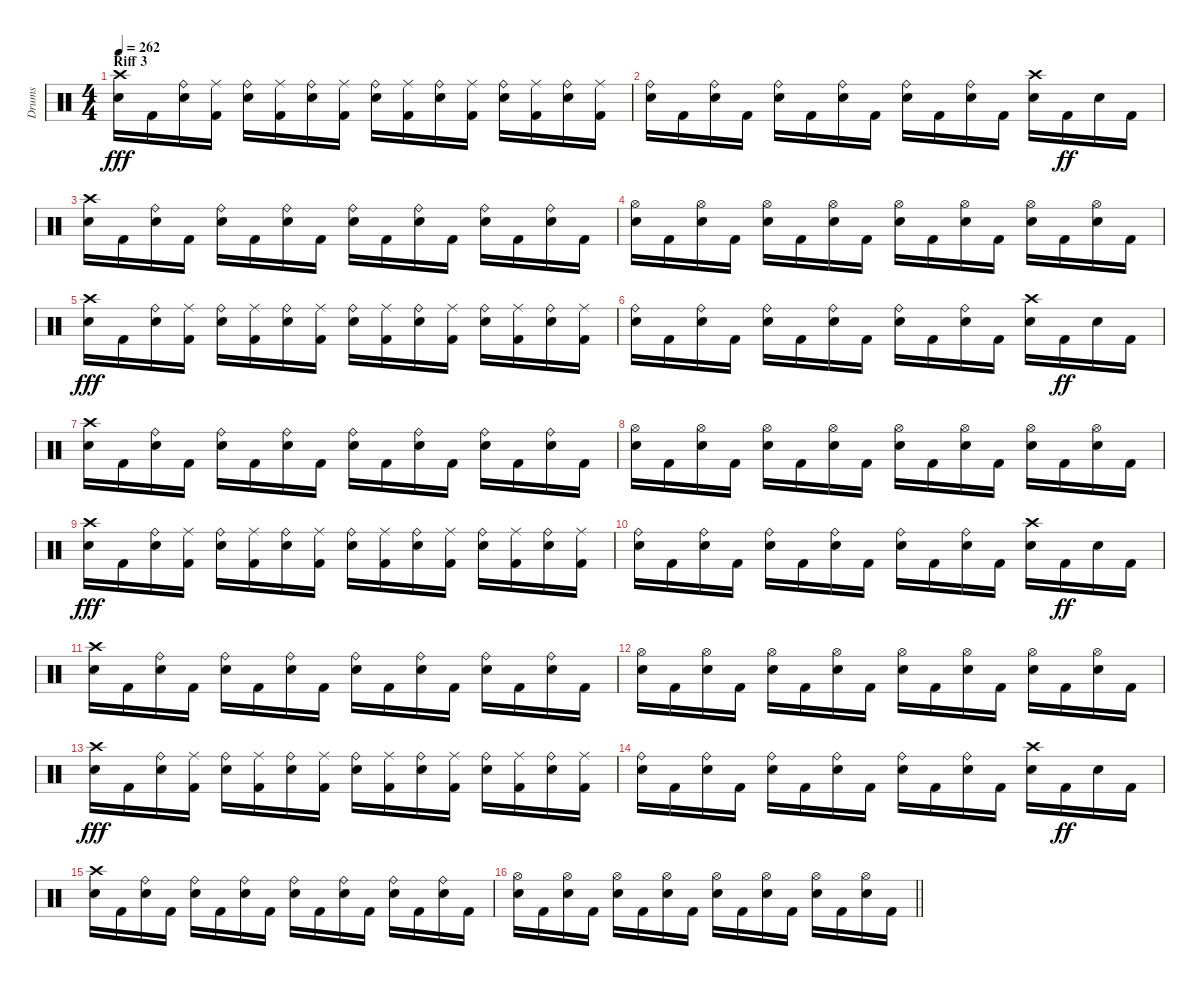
\track ("Drums" "Drums") {instrument percussion}
\staff {score}
\articulation defaults
\ts (4 4)
\section ("" "Riff 3")
\tempo 262
\clef neutral
\ks c
("Crash high (hit)" "Snare (hit) 2").16{dy fff} "Kick (hit) 2".16 ("Snare (hit) 2" "Ride (bell)").16 ("Kick (hit) 2" "Ride (middle)").16 ("Snare (hit) 2" "Ride (bell)").16 ("Kick (hit) 2" "Ride (middle)").16 ("Snare (hit) 2" "Ride (bell)").16 ("Kick (hit) 2" "Ride (middle)").16 ("Snare (hit) 2" "Ride (bell)").16 ("Kick (hit) 2" "Ride (middle)").16 ("Snare (hit) 2" "Ride (bell)").16 ("Kick (hit) 2" "Ride (middle)").16 ("Snare (hit) 2" "Ride (bell)").16 ("Kick (hit) 2" "Ride (middle)").16 ("Snare (hit) 2" "Ride (bell)").16 ("Kick (hit) 2" "Ride (middle)").16 |
("Snare (hit) 2" "Ride (bell)").16 "Kick (hit) 2".16 ("Snare (hit) 2" "Ride (bell)").16 "Kick (hit) 2".16 ("Snare (hit) 2" "Ride (bell)").16 "Kick (hit) 2".16 ("Snare (hit) 2" "Ride (bell)").16 "Kick (hit) 2".16 ("Snare (hit) 2" "Ride (bell)").16 "Kick (hit) 2".16 ("Snare (hit) 2" "Ride (bell)").16 "Kick (hit) 2".16 ("Crash high (hit)" "Snare (hit) 2").16 "Kick (hit) 2".16{dy ff} "Snare (hit) 2".16 "Kick (hit) 2".16 |
("Crash high (hit)" "Snare (hit) 2").16 "Kick (hit) 2".16 ("Snare (hit) 2" "Ride (bell)").16 "Kick (hit) 2".16 ("Snare (hit) 2" "Ride (bell)").16 "Kick (hit) 2".16 ("Snare (hit) 2" "Ride (bell)").16 "Kick (hit) 2".16 ("Snare (hit) 2" "Ride (bell)").16 "Kick (hit) 2".16 ("Snare (hit) 2" "Ride (bell)").16 "Kick (hit) 2".16 ("Snare (hit) 2" "Ride (bell)").16 "Kick (hit) 2".16 ("Snare (hit) 2" "Ride (bell)").16 "Kick (hit) 2".16 |
("Hi-Hat (open)" "Snare (hit) 2").16 "Kick (hit) 2".16 ("Hi-Hat (open)" "Snare (hit) 2").16 "Kick (hit) 2".16 ("Hi-Hat (open)" "Snare (hit) 2").16 "Kick (hit) 2".16 ("Hi-Hat (open)" "Snare (hit) 2").16 "Kick (hit) 2".16 ("Hi-Hat (open)" "Snare (hit) 2").16 "Kick (hit) 2".16 ("Hi-Hat (open)" "Snare (hit) 2").16 "Kick (hit) 2".16 ("Hi-Hat (open)" "Snare (hit) 2").16 "Kick (hit) 2".16 ("Hi-Hat (open)" "Snare (hit) 2").16 "Kick (hit) 2".16 |
("Crash high (hit)" "Snare (hit) 2").16{dy fff} "Kick (hit) 2".16 ("Snare (hit) 2" "Ride (bell)").16 ("Kick (hit) 2" "Ride (middle)").16 ("Snare (hit) 2" "Ride (bell)").16 ("Kick (hit) 2" "Ride (middle)").16 ("Snare (hit) 2" "Ride (bell)").16 ("Kick (hit) 2" "Ride (middle)").16 ("Snare (hit) 2" "Ride (bell)").16 ("Kick (hit) 2" "Ride (middle)").16 ("Snare (hit) 2" "Ride (bell)").16 ("Kick (hit) 2" "Ride (middle)").16 ("Snare (hit) 2" "Ride (bell)").16 ("Kick (hit) 2" "Ride (middle)").16 ("Snare (hit) 2" "Ride (bell)").16 ("Kick (hit) 2" "Ride (middle)").16 |
("Snare (hit) 2" "Ride (bell)").16 "Kick (hit) 2".16 ("Snare (hit) 2" "Ride (bell)").16 "Kick (hit) 2".16 ("Snare (hit) 2" "Ride (bell)").16 "Kick (hit) 2".16 ("Snare (hit) 2" "Ride (bell)").16 "Kick (hit) 2".16 ("Snare (hit) 2" "Ride (bell)").16 "Kick (hit) 2".16 ("Snare (hit) 2" "Ride (bell)").16 "Kick (hit) 2".16 ("Crash high (hit)" "Snare (hit) 2").16 "Kick (hit) 2".16{dy ff} "Snare (hit) 2".16 "Kick (hit) 2".16 |
("Crash high (hit)" "Snare (hit) 2").16 "Kick (hit) 2".16 ("Snare (hit) 2" "Ride (bell)").16 "Kick (hit) 2".16 ("Snare (hit) 2" "Ride (bell)").16 "Kick (hit) 2".16 ("Snare (hit) 2" "Ride (bell)").16 "Kick (hit) 2".16 ("Snare (hit) 2" "Ride (bell)").16 "Kick (hit) 2".16 ("Snare (hit) 2" "Ride (bell)").16 "Kick (hit) 2".16 ("Snare (hit) 2" "Ride (bell)").16 "Kick (hit) 2".16 ("Snare (hit) 2" "Ride (bell)").16 "Kick (hit) 2".16 |
("Hi-Hat (open)" "Snare (hit) 2").16 "Kick (hit) 2".16 ("Hi-Hat (open)" "Snare (hit) 2").16 "Kick (hit) 2".16 ("Hi-Hat (open)" "Snare (hit) 2").16 "Kick (hit) 2".16 ("Hi-Hat (open)" "Snare (hit) 2").16 "Kick (hit) 2".16 ("Hi-Hat (open)" "Snare (hit) 2").16 "Kick (hit) 2".16 ("Hi-Hat (open)" "Snare (hit) 2").16 "Kick (hit) 2".16 ("Hi-Hat (open)" "Snare (hit) 2").16 "Kick (hit) 2".16 ("Hi-Hat (open)" "Snare (hit) 2").16 "Kick (hit) 2".16 |
("Crash high (hit)" "Snare (hit) 2").16{dy fff} "Kick (hit) 2".16 ("Snare (hit) 2" "Ride (bell)").16 ("Kick (hit) 2" "Ride (middle)").16 ("Snare (hit) 2" "Ride (bell)").16 ("Kick (hit) 2" "Ride (middle)").16 ("Snare (hit) 2" "Ride (bell)").16 ("Kick (hit) 2" "Ride (middle)").16 ("Snare (hit) 2" "Ride (bell)").16 ("Kick (hit) 2" "Ride (middle)").16 ("Snare (hit) 2" "Ride (bell)").16 ("Kick (hit) 2" "Ride (middle)").16 ("Snare (hit) 2" "Ride (bell)").16 ("Kick (hit) 2" "Ride (middle)").16 ("Snare (hit) 2" "Ride (bell)").16 ("Kick (hit) 2" "Ride (middle)").16 |
("Snare (hit) 2" "Ride (bell)").16 "Kick (hit) 2".16 ("Snare (hit) 2" "Ride (bell)").16 "Kick (hit) 2".16 ("Snare (hit) 2" "Ride (bell)").16 "Kick (hit) 2".16 ("Snare (hit) 2" "Ride (bell)").16 "Kick (hit) 2".16 ("Snare (hit) 2" "Ride (bell)").16 "Kick (hit) 2".16 ("Snare (hit) 2" "Ride (bell)").16 "Kick (hit) 2".16 ("Crash high (hit)" "Snare (hit) 2").16 "Kick (hit) 2".16{dy ff} "Snare (hit) 2".16 "Kick (hit) 2".16 |
("Crash high (hit)" "Snare (hit) 2").16 "Kick (hit) 2".16 ("Snare (hit) 2" "Ride (bell)").16 "Kick (hit) 2".16 ("Snare (hit) 2" "Ride (bell)").16 "Kick (hit) 2".16 ("Snare (hit) 2" "Ride (bell)").16 "Kick (hit) 2".16 ("Snare (hit) 2" "Ride (bell)").16 "Kick (hit) 2".16 ("Snare (hit) 2" "Ride (bell)").16 "Kick (hit) 2".16 ("Snare (hit) 2" "Ride (bell)").16 "Kick (hit) 2".16 ("Snare (hit) 2" "Ride (bell)").16 "Kick (hit) 2".16 |
("Hi-Hat (open)" "Snare (hit) 2").16 "Kick (hit) 2".16 ("Hi-Hat (open)" "Snare (hit) 2").16 "Kick (hit) 2".16 ("Hi-Hat (open)" "Snare (hit) 2").16 "Kick (hit) 2".16 ("Hi-Hat (open)" "Snare (hit) 2").16 "Kick (hit) 2".16 ("Hi-Hat (open)" "Snare (hit) 2").16 "Kick (hit) 2".16 ("Hi-Hat (open)" "Snare (hit) 2").16 "Kick (hit) 2".16 ("Hi-Hat (open)" "Snare (hit) 2").16 "Kick (hit) 2".16 ("Hi-Hat (open)" "Snare (hit) 2").16 "Kick (hit) 2".16 |
("Crash high (hit)" "Snare (hit) 2").16{dy fff} "Kick (hit) 2".16 ("Snare (hit) 2" "Ride (bell)").16 ("Kick (hit) 2" "Ride (middle)").16 ("Snare (hit) 2" "Ride (bell)").16 ("Kick (hit) 2" "Ride (middle)").16 ("Snare (hit) 2" "Ride (bell)").16 ("Kick (hit) 2" "Ride (middle)").16 ("Snare (hit) 2" "Ride (bell)").16 ("Kick (hit) 2" "Ride (middle)").16 ("Snare (hit) 2" "Ride (bell)").16 ("Kick (hit) 2" "Ride (middle)").16 ("Snare (hit) 2" "Ride (bell)").16 ("Kick (hit) 2" "Ride (middle)").16 ("Snare (hit) 2" "Ride (bell)").16 ("Kick (hit) 2" "Ride (middle)").16 |
("Snare (hit) 2" "Ride (bell)").16 "Kick (hit) 2".16 ("Snare (hit) 2" "Ride (bell)").16 "Kick (hit) 2".16 ("Snare (hit) 2" "Ride (bell)").16 "Kick (hit) 2".16 ("Snare (hit) 2" "Ride (bell)").16 "Kick (hit) 2".16 ("Snare (hit) 2" "Ride (bell)").16 "Kick (hit) 2".16 ("Snare (hit) 2" "Ride (bell)").16 "Kick (hit) 2".16 ("Crash high (hit)" "Snare (hit) 2").16 "Kick (hit) 2".16{dy ff} "Snare (hit) 2".16 "Kick (hit) 2".16 |
("Crash high (hit)" "Snare (hit) 2").16 "Kick (hit) 2".16 ("Snare (hit) 2" "Ride (bell)").16 "Kick (hit) 2".16 ("Snare (hit) 2" "Ride (bell)").16 "Kick (hit) 2".16 ("Snare (hit) 2" "Ride (bell)").16 "Kick (hit) 2".16 ("Snare (hit) 2" "Ride (bell)").16 "Kick (hit) 2".16 ("Snare (hit) 2" "Ride (bell)").16 "Kick (hit) 2".16 ("Snare (hit) 2" "Ride (bell)").16 "Kick (hit) 2".16 ("Snare (hit) 2" "Ride (bell)").16 "Kick (hit) 2".16 |
\barLineRight lightlight
("Hi-Hat (open)" "Snare (hit) 2").16 "Kick (hit) 2".16 ("Hi-Hat (open)" "Snare (hit) 2").16 "Kick (hit) 2".16 ("Hi-Hat (open)" "Snare (hit) 2").16 "Kick (hit) 2".16 ("Hi-Hat (open)" "Snare (hit) 2").16 "Kick (hit) 2".16 ("Hi-Hat (open)" "Snare (hit) 2").16 "Kick (hit) 2".16 ("Hi-Hat (open)" "Snare (hit) 2").16 "Kick (hit) 2".16 ("Hi-Hat (open)" "Snare (hit) 2").16 "Kick (hit) 2".16 ("Hi-Hat (open)" "Snare (hit) 2").16 "Kick (hit) 2".16
